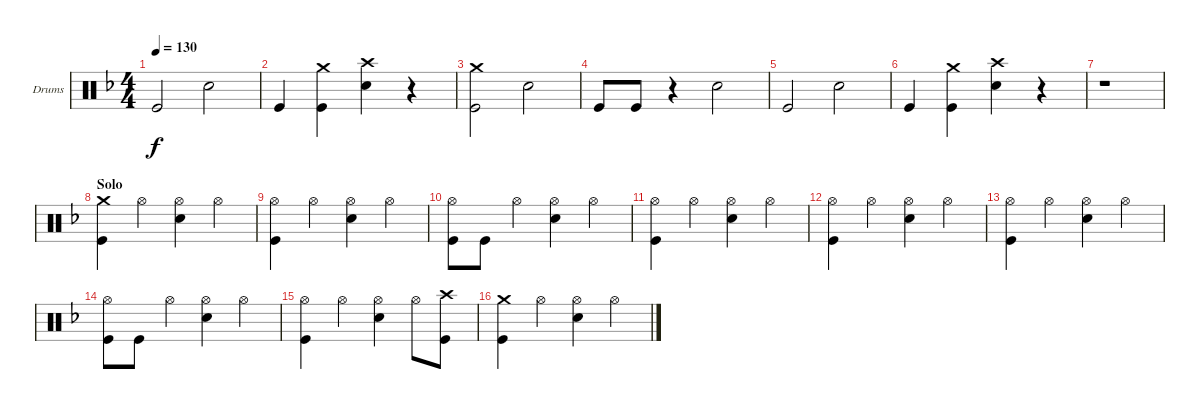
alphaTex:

\defaultSystemsLayout 4
\bracketExtendMode groupsimilarinstruments
\firstSystemTrackNameOrientation horizontal
\otherSystemsTrackNameOrientation horizontal
\track ("Drumkit" "Drums") {instrument percussion}
\staff {score}
\articulation defaults
\ts (4 4)
\tempo 130
\clef neutral
\ks dminor "Kick (hit)".2{dy f} "Snare (hit) 2".2
|
"Kick (hit)".4 ("Kick (hit)" "Crash medium (hit)").4 ("Crash high (hit)" "Snare (hit) 2").4 r.4 |
("Crash medium (hit)" "Kick (hit)").2 "Snare (hit) 2".2 |
"Kick (hit)".8 "Kick (hit)".8 r.4 "Snare (hit) 2".2 |
"Kick (hit)".2 "Snare (hit) 2".2 |
"Kick (hit)".4 ("Kick (hit)" "Crash medium (hit)").4 ("Crash high (hit)" "Snare (hit) 2").4 r.4 |
r.1 |
\section ("" "Solo")
("Kick (hit)" "Crash medium (hit)").4 "Hi-Hat (open)".4 ("Snare (hit) 2" "Hi-Hat (open)").4 "Hi-Hat (open)".4 |
("Kick (hit)" "Hi-Hat (open)").4 "Hi-Hat (open)".4 ("Snare (hit) 2" "Hi-Hat (open)").4 "Hi-Hat (open)".4 |
("Kick (hit)" "Hi-Hat (open)").8 "Kick (hit)".8 "Hi-Hat (open)".4 ("Snare (hit) 2" "Hi-Hat (open)").4 "Hi-Hat (open)".4 |
("Kick (hit)" "Hi-Hat (open)").4 "Hi-Hat (open)".4 ("Snare (hit) 2" "Hi-Hat (open)").4 "Hi-Hat (open)".4 |
("Kick (hit)" "Hi-Hat (open)").4 "Hi-Hat (open)".4 ("Snare (hit) 2" "Hi-Hat (open)").4 "Hi-Hat (open)".4 |
("Kick (hit)" "Hi-Hat (open)").4 "Hi-Hat (open)".4 ("Snare (hit) 2" "Hi-Hat (open)").4 "Hi-Hat (open)".4 |
("Kick (hit)" "Hi-Hat (open)").8 "Kick (hit)".8 "Hi-Hat (open)".4 ("Snare (hit) 2" "Hi-Hat (open)").4 "Hi-Hat (open)".4 |
("Kick (hit)" "Hi-Hat (open)").4 "Hi-Hat (open)".4 ("Snare (hit) 2" "Hi-Hat (open)").4 "Hi-Hat (open)".8 ("Kick (hit)" "Crash high (hit)").8 |
("Kick (hit)" "Crash medium (hit)").4 "Hi-Hat (open)".4 ("Snare (hit) 2" "Hi-Hat (open)").4 "Hi-Hat (open)".4
